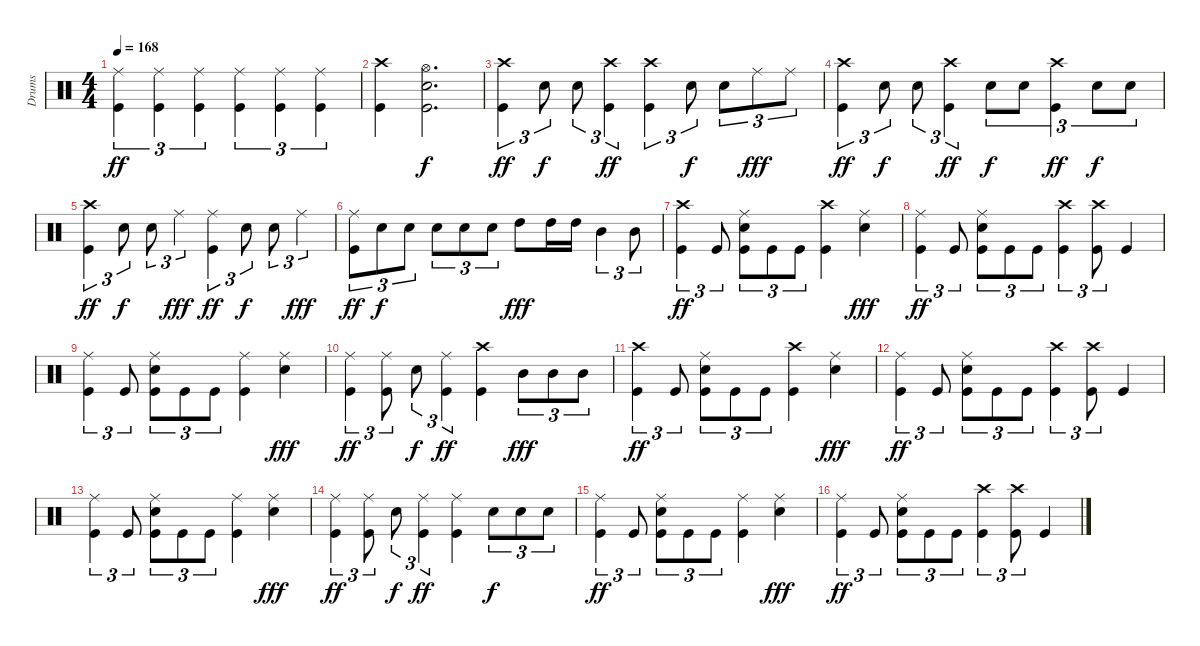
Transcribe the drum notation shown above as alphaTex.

\track ("Drums" "Drums") {instrument percussion}
\staff {score}
\articulation defaults
\ts (4 4)
\tempo 168
\clef neutral
\ks c
("Ride (middle)" "Kick (hit)").4{tu (3 2) dy ff} ("Ride (middle)" "Kick (hit)").4{tu (3 2)} ("Ride (middle)" "Kick (hit)").4{tu (3 2)} ("Ride (middle)" "Kick (hit)").4{tu (3 2)} ("Ride (middle)" "Kick (hit)").4{tu (3 2)} ("Ride (middle)" "Kick (hit)").4{tu (3 2)} |
("Crash high (hit)" "Kick (hit)").4 ("Electric Snare (hit)" "Kick (hit)" "Hi-Hat (open)").2{d dy f} |
("Crash high (hit)" "Kick (hit)").4{tu (3 2) dy ff} "Electric Snare (hit)".8{tu (3 2) dy f} "Electric Snare (hit)".8{tu (3 2)} ("Crash high (hit)" "Kick (hit)").4{tu (3 2) dy ff} ("Crash high (hit)" "Kick (hit)").4{tu (3 2)} "Electric Snare (hit)".8{tu (3 2) dy f} "Electric Snare (hit)".8{tu (3 2)} "Ride (middle)".8{tu (3 2) dy fff} "Ride (middle)".8{tu (3 2)} |
("Crash high (hit)" "Kick (hit)").4{tu (3 2) dy ff} "Electric Snare (hit)".8{tu (3 2) dy f} "Electric Snare (hit)".8{tu (3 2)} ("Crash high (hit)" "Kick (hit)").4{tu (3 2) dy ff} "Electric Snare (hit)".8{tu (3 2) dy f} "Electric Snare (hit)".8{tu (3 2)} ("Crash high (hit)" "Kick (hit)").4{tu (3 2) dy ff} "Electric Snare (hit)".8{tu (3 2) dy f} "Electric Snare (hit)".8{tu (3 2)} |
("Crash high (hit)" "Kick (hit)").4{tu (3 2) dy ff} "Electric Snare (hit)".8{tu (3 2) dy f} "Electric Snare (hit)".8{tu (3 2)} "Ride (middle)".4{tu (3 2) dy fff} ("Ride (middle)" "Kick (hit)").4{tu (3 2) dy ff} "Electric Snare (hit)".8{tu (3 2) dy f} "Electric Snare (hit)".8{tu (3 2)} "Ride (middle)".4{tu (3 2) dy fff} |
("Ride (middle)" "Kick (hit)").8{tu (3 2) dy ff} "Electric Snare (hit)".8{tu (3 2) dy f} "Electric Snare (hit)".8{tu (3 2)} "Electric Snare (hit)".8{tu (3 2)} "Electric Snare (hit)".8{tu (3 2)} "Electric Snare (hit)".8{tu (3 2)} "High Tom (hit)".8{dy fff} "High Tom (hit)".16 "High Tom (hit)".16 "Mid Tom (hit)".4{tu (3 2)} "Mid Tom (hit)".8{tu (3 2)} |
("Crash high (hit)" "Kick (hit)").4{tu (3 2) dy ff} "Kick (hit)".8{tu (3 2)} ("Ride (middle)" "Electric Snare (hit)" "Kick (hit)").8{tu (3 2)} "Kick (hit)".8{tu (3 2)} "Kick (hit)".8{tu (3 2)} ("Crash high (hit)" "Kick (hit)").4 ("Ride (middle)" "Electric Snare (hit)").4{dy fff} |
("Ride (middle)" "Kick (hit)").4{tu (3 2) dy ff} "Kick (hit)".8{tu (3 2)} ("Ride (middle)" "Electric Snare (hit)" "Kick (hit)").8{tu (3 2)} "Kick (hit)".8{tu (3 2)} "Kick (hit)".8{tu (3 2)} ("Crash high (hit)" "Kick (hit)").4{tu (3 2)} ("Crash high (hit)" "Kick (hit)").8{tu (3 2)} "Kick (hit)".4 |
("Ride (middle)" "Kick (hit)").4{tu (3 2)} "Kick (hit)".8{tu (3 2)} ("Ride (middle)" "Electric Snare (hit)" "Kick (hit)").8{tu (3 2)} "Kick (hit)".8{tu (3 2)} "Kick (hit)".8{tu (3 2)} ("Ride (middle)" "Kick (hit)").4 ("Ride (middle)" "Electric Snare (hit)").4{dy fff} |
("Ride (middle)" "Kick (hit)").4{tu (3 2) dy ff} ("Ride (middle)" "Kick (hit)").8{tu (3 2)} "Electric Snare (hit)".8{tu (3 2) dy f} ("Ride (middle)" "Kick (hit)").4{tu (3 2) dy ff} ("Crash high (hit)" "Kick (hit)").4 "Mid Tom (hit)".8{tu (3 2) dy fff} "Mid Tom (hit)".8{tu (3 2)} "Mid Tom (hit)".8{tu (3 2)} |
("Crash high (hit)" "Kick (hit)").4{tu (3 2) dy ff} "Kick (hit)".8{tu (3 2)} ("Ride (middle)" "Electric Snare (hit)" "Kick (hit)").8{tu (3 2)} "Kick (hit)".8{tu (3 2)} "Kick (hit)".8{tu (3 2)} ("Crash high (hit)" "Kick (hit)").4 ("Ride (middle)" "Electric Snare (hit)").4{dy fff} |
("Ride (middle)" "Kick (hit)").4{tu (3 2) dy ff} "Kick (hit)".8{tu (3 2)} ("Ride (middle)" "Electric Snare (hit)" "Kick (hit)").8{tu (3 2)} "Kick (hit)".8{tu (3 2)} "Kick (hit)".8{tu (3 2)} ("Crash high (hit)" "Kick (hit)").4{tu (3 2)} ("Crash high (hit)" "Kick (hit)").8{tu (3 2)} "Kick (hit)".4 |
("Ride (middle)" "Kick (hit)").4{tu (3 2)} "Kick (hit)".8{tu (3 2)} ("Ride (middle)" "Electric Snare (hit)" "Kick (hit)").8{tu (3 2)} "Kick (hit)".8{tu (3 2)} "Kick (hit)".8{tu (3 2)} ("Ride (middle)" "Kick (hit)").4 ("Ride (middle)" "Electric Snare (hit)").4{dy fff} |
("Ride (middle)" "Kick (hit)").4{tu (3 2) dy ff} ("Ride (middle)" "Kick (hit)").8{tu (3 2)} "Electric Snare (hit)".8{tu (3 2) dy f} ("Ride (middle)" "Kick (hit)").4{tu (3 2) dy ff} ("Ride (middle)" "Kick (hit)").4 "Electric Snare (hit)".8{tu (3 2) dy f} "Electric Snare (hit)".8{tu (3 2)} "Electric Snare (hit)".8{tu (3 2)} |
("Ride (middle)" "Kick (hit)").4{tu (3 2) dy ff} "Kick (hit)".8{tu (3 2)} ("Ride (middle)" "Electric Snare (hit)" "Kick (hit)").8{tu (3 2)} "Kick (hit)".8{tu (3 2)} "Kick (hit)".8{tu (3 2)} ("Ride (middle)" "Kick (hit)").4 ("Ride (middle)" "Electric Snare (hit)").4{dy fff} |
("Ride (middle)" "Kick (hit)").4{tu (3 2) dy ff} "Kick (hit)".8{tu (3 2)} ("Ride (middle)" "Electric Snare (hit)" "Kick (hit)").8{tu (3 2)} "Kick (hit)".8{tu (3 2)} "Kick (hit)".8{tu (3 2)} ("Crash high (hit)" "Kick (hit)").4{tu (3 2)} ("Crash high (hit)" "Kick (hit)").8{tu (3 2)} "Kick (hit)".4
